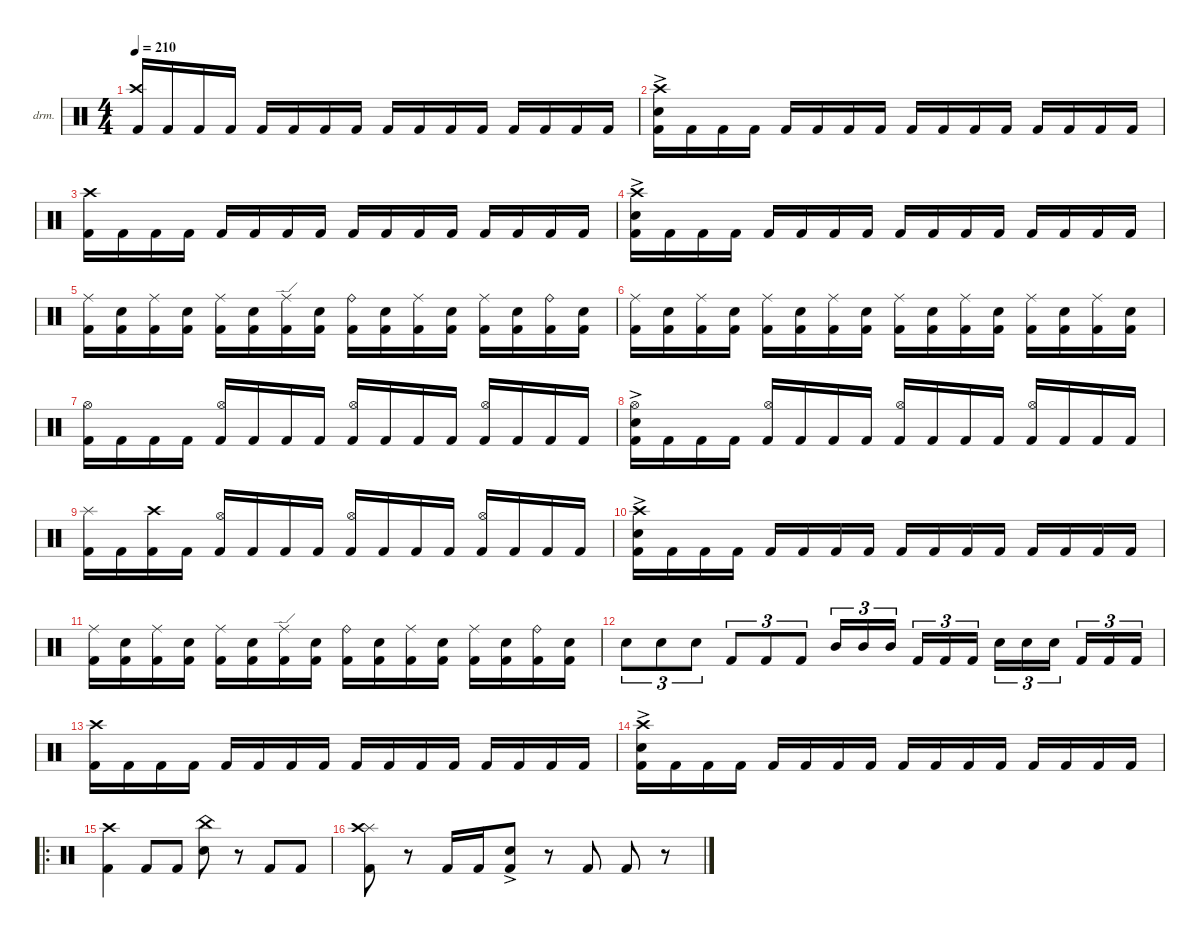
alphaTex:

\defaultSystemsLayout 4
\hideDynamics
\bracketExtendMode nobrackets
\firstSystemTrackNameOrientation horizontal
\otherSystemsTrackNameOrientation horizontal
\track ("Drumkit" "drm.") {instrument percussion}
\staff {score}
\articulation defaults
\ts (4 4)
\tempo 210
\clef neutral
\ks c
("Kick (hit) 2" "Crash high (hit)").16{dy f beam Up} "Kick (hit) 2".16{beam Up} "Kick (hit) 2".16{beam Up} "Kick (hit) 2".16{beam Up} "Kick (hit) 2".16{beam Up} "Kick (hit) 2".16{beam Up} "Kick (hit) 2".16{beam Up} "Kick (hit) 2".16{beam Up} "Kick (hit) 2".16{beam Up} "Kick (hit) 2".16{beam Up} "Kick (hit) 2".16{beam Up} "Kick (hit) 2".16{beam Up} "Kick (hit) 2".16{beam Up} "Kick (hit) 2".16{beam Up} "Kick (hit) 2".16{beam Up} "Kick (hit) 2".16{beam Up} |
("Kick (hit) 2" "Crash high (hit)" "Snare (hit) 2"{ac}).16{beam Down} "Kick (hit) 2".16{beam Down} "Kick (hit) 2".16{beam Down} "Kick (hit) 2".16{beam Down} "Kick (hit) 2".16{beam Up} "Kick (hit) 2".16{beam Up} "Kick (hit) 2".16{beam Up} "Kick (hit) 2".16{beam Up} "Kick (hit) 2".16{beam Up} "Kick (hit) 2".16{beam Up} "Kick (hit) 2".16{beam Up} "Kick (hit) 2".16{beam Up} "Kick (hit) 2".16{beam Up} "Kick (hit) 2".16{beam Up} "Kick (hit) 2".16{beam Up} "Kick (hit) 2".16{beam Up} |
("Kick (hit) 2" "Crash high (hit)").16{beam Down} "Kick (hit) 2".16{beam Down} "Kick (hit) 2".16{beam Down} "Kick (hit) 2".16{beam Down} "Kick (hit) 2".16{beam Up} "Kick (hit) 2".16{beam Up} "Kick (hit) 2".16{beam Up} "Kick (hit) 2".16{beam Up} "Kick (hit) 2".16{beam Up} "Kick (hit) 2".16{beam Up} "Kick (hit) 2".16{beam Up} "Kick (hit) 2".16{beam Up} "Kick (hit) 2".16{beam Up} "Kick (hit) 2".16{beam Up} "Kick (hit) 2".16{beam Up} "Kick (hit) 2".16{beam Up} |
("Kick (hit) 2" "Crash high (hit)" "Snare (hit) 2"{ac}).16{beam Down} "Kick (hit) 2".16{beam Down} "Kick (hit) 2".16{beam Down} "Kick (hit) 2".16{beam Down} "Kick (hit) 2".16{beam Up} "Kick (hit) 2".16{beam Up} "Kick (hit) 2".16{beam Up} "Kick (hit) 2".16{beam Up} "Kick (hit) 2".16{beam Up} "Kick (hit) 2".16{beam Up} "Kick (hit) 2".16{beam Up} "Kick (hit) 2".16{beam Up} "Kick (hit) 2".16{beam Up} "Kick (hit) 2".16{beam Up} "Kick (hit) 2".16{beam Up} "Kick (hit) 2".16{beam Up} |
("Kick (hit) 2" "Ride (middle)").16{beam Down} ("Kick (hit) 2" "Snare (hit) 2").16{beam Down} ("Kick (hit) 2" "Ride (middle)").16{beam Down} ("Kick (hit) 2" "Snare (hit) 2").16{beam Down} ("Kick (hit) 2" "Ride (middle)").16{beam Down} ("Kick (hit) 2" "Snare (hit) 2").16{beam Down} ("Kick (hit) 2" "Ride (edge)").16{beam Down} ("Kick (hit) 2" "Snare (hit) 2").16{beam Down} ("Kick (hit) 2" "Ride (bell)").16{beam Down} ("Kick (hit) 2" "Snare (hit) 2").16{beam Down} ("Kick (hit) 2" "Ride (middle)").16{beam Down} ("Kick (hit) 2" "Snare (hit) 2").16{beam Down} ("Kick (hit) 2" "Ride (middle)").16{beam Down} ("Kick (hit) 2" "Snare (hit) 2").16{beam Down} ("Kick (hit) 2" "Ride (bell)").16{beam Down} ("Kick (hit) 2" "Snare (hit) 2").16{beam Down} |
("Kick (hit) 2" "Ride (middle)").16{beam Down} ("Kick (hit) 2" "Snare (hit) 2").16{beam Down} ("Kick (hit) 2" "Ride (middle)").16{beam Down} ("Kick (hit) 2" "Snare (hit) 2").16{beam Down} ("Kick (hit) 2" "Ride (middle)").16{beam Down} ("Kick (hit) 2" "Snare (hit) 2").16{beam Down} ("Kick (hit) 2" "Ride (middle)").16{beam Down} ("Kick (hit) 2" "Snare (hit) 2").16{beam Down} ("Kick (hit) 2" "Ride (middle)").16{beam Down} ("Kick (hit) 2" "Snare (hit) 2").16{beam Down} ("Kick (hit) 2" "Ride (middle)").16{beam Down} ("Kick (hit) 2" "Snare (hit) 2").16{beam Down} ("Kick (hit) 2" "Ride (middle)").16{beam Down} ("Kick (hit) 2" "Snare (hit) 2").16{beam Down} ("Kick (hit) 2" "Ride (middle)").16{beam Down} ("Kick (hit) 2" "Snare (hit) 2").16{beam Down} |
("Kick (hit) 2" "Hi-Hat (open)").16{beam Down} "Kick (hit) 2".16{beam Down} "Kick (hit) 2".16{beam Down} "Kick (hit) 2".16{beam Down} ("Kick (hit) 2" "Hi-Hat (open)").16{beam Up} "Kick (hit) 2".16{beam Up} "Kick (hit) 2".16{beam Up} "Kick (hit) 2".16{beam Up} ("Kick (hit) 2" "Hi-Hat (open)").16{beam Up} "Kick (hit) 2".16{beam Up} "Kick (hit) 2".16{beam Up} "Kick (hit) 2".16{beam Up} ("Kick (hit) 2" "Hi-Hat (open)").16{beam Up} "Kick (hit) 2".16{beam Up} "Kick (hit) 2".16{beam Up} "Kick (hit) 2".16{beam Up} |
("Kick (hit) 2" "Snare (hit) 2"{ac} "Hi-Hat (open)").16{beam Down} "Kick (hit) 2".16{beam Down} "Kick (hit) 2".16{beam Down} "Kick (hit) 2".16{beam Down} ("Kick (hit) 2" "Hi-Hat (open)").16{beam Up} "Kick (hit) 2".16{beam Up} "Kick (hit) 2".16{beam Up} "Kick (hit) 2".16{beam Up} ("Kick (hit) 2" "Hi-Hat (open)").16{beam Up} "Kick (hit) 2".16{beam Up} "Kick (hit) 2".16{beam Up} "Kick (hit) 2".16{beam Up} ("Kick (hit) 2" "Hi-Hat (open)").16{beam Up} "Kick (hit) 2".16{beam Up} "Kick (hit) 2".16{beam Up} "Kick (hit) 2".16{beam Up} |
("Kick (hit) 2" "Splash (hit)").16{beam Down} "Kick (hit) 2".16{beam Down} ("Kick (hit) 2" "Crash high (hit)").16{beam Down} "Kick (hit) 2".16{beam Down} ("Kick (hit) 2" "Hi-Hat (open)").16{beam Up} "Kick (hit) 2".16{beam Up} "Kick (hit) 2".16{beam Up} "Kick (hit) 2".16{beam Up} ("Kick (hit) 2" "Hi-Hat (open)").16{beam Up} "Kick (hit) 2".16{beam Up} "Kick (hit) 2".16{beam Up} "Kick (hit) 2".16{beam Up} ("Kick (hit) 2" "Hi-Hat (open)").16{beam Up} "Kick (hit) 2".16{beam Up} "Kick (hit) 2".16{beam Up} "Kick (hit) 2".16{beam Up} |
("Kick (hit) 2" "Crash high (hit)" "Snare (hit) 2"{ac}).16{beam Down} "Kick (hit) 2".16{beam Down} "Kick (hit) 2".16{beam Down} "Kick (hit) 2".16{beam Down} "Kick (hit) 2".16{beam Up} "Kick (hit) 2".16{beam Up} "Kick (hit) 2".16{beam Up} "Kick (hit) 2".16{beam Up} "Kick (hit) 2".16{beam Up} "Kick (hit) 2".16{beam Up} "Kick (hit) 2".16{beam Up} "Kick (hit) 2".16{beam Up} "Kick (hit) 2".16{beam Up} "Kick (hit) 2".16{beam Up} "Kick (hit) 2".16{beam Up} "Kick (hit) 2".16{beam Up} |
("Kick (hit) 2" "Ride (middle)").16{beam Down} ("Kick (hit) 2" "Snare (hit) 2").16{beam Down} ("Kick (hit) 2" "Ride (middle)").16{beam Down} ("Kick (hit) 2" "Snare (hit) 2").16{beam Down} ("Kick (hit) 2" "Ride (middle)").16{beam Down} ("Kick (hit) 2" "Snare (hit) 2").16{beam Down} ("Kick (hit) 2" "Ride (edge)").16{beam Down} ("Kick (hit) 2" "Snare (hit) 2").16{beam Down} ("Kick (hit) 2" "Ride (bell)").16{beam Down} ("Kick (hit) 2" "Snare (hit) 2").16{beam Down} ("Kick (hit) 2" "Ride (middle)").16{beam Down} ("Kick (hit) 2" "Snare (hit) 2").16{beam Down} ("Kick (hit) 2" "Ride (middle)").16{beam Down} ("Kick (hit) 2" "Snare (hit) 2").16{beam Down} ("Kick (hit) 2" "Ride (bell)").16{beam Down} ("Kick (hit) 2" "Snare (hit) 2").16{beam Down} |
"Snare (hit) 2".8{tu (3 2) beam Down} "Snare (hit) 2".8{tu (3 2) beam Down} "Snare (hit) 2".8{tu (3 2) beam Down} "Kick (hit) 2".8{tu (3 2) beam Up} "Kick (hit) 2".8{tu (3 2) beam Up} "Kick (hit) 2".8{tu (3 2) beam Up} "Mid Tom (hit)".16{tu (3 2) beam Up} "Mid Tom (hit)".16{tu (3 2) beam Up} "Mid Tom (hit)".16{tu (3 2) beam Up} "Kick (hit) 2".16{tu (3 2) beam Up} "Kick (hit) 2".16{tu (3 2) beam Up} "Kick (hit) 2".16{tu (3 2) beam Up} "Snare (hit) 2".16{tu (3 2) beam Down} "Snare (hit) 2".16{tu (3 2) beam Down} "Snare (hit) 2".16{tu (3 2) beam Down} "Kick (hit) 2".16{tu (3 2) beam Up} "Kick (hit) 2".16{tu (3 2) beam Up} "Kick (hit) 2".16{tu (3 2) beam Up} |
("Kick (hit) 2" "Crash high (hit)").16{beam Down} "Kick (hit) 2".16{beam Down} "Kick (hit) 2".16{beam Down} "Kick (hit) 2".16{beam Down} "Kick (hit) 2".16{beam Up} "Kick (hit) 2".16{beam Up} "Kick (hit) 2".16{beam Up} "Kick (hit) 2".16{beam Up} "Kick (hit) 2".16{beam Up} "Kick (hit) 2".16{beam Up} "Kick (hit) 2".16{beam Up} "Kick (hit) 2".16{beam Up} "Kick (hit) 2".16{beam Up} "Kick (hit) 2".16{beam Up} "Kick (hit) 2".16{beam Up} "Kick (hit) 2".16{beam Up} |
("Kick (hit) 2" "Crash high (hit)" "Snare (hit) 2"{ac}).16{beam Down} "Kick (hit) 2".16{beam Down} "Kick (hit) 2".16{beam Down} "Kick (hit) 2".16{beam Down} "Kick (hit) 2".16{beam Up} "Kick (hit) 2".16{beam Up} "Kick (hit) 2".16{beam Up} "Kick (hit) 2".16{beam Up} "Kick (hit) 2".16{beam Up} "Kick (hit) 2".16{beam Up} "Kick (hit) 2".16{beam Up} "Kick (hit) 2".16{beam Up} "Kick (hit) 2".16{beam Up} "Kick (hit) 2".16{beam Up} "Kick (hit) 2".16{beam Up} "Kick (hit) 2".16{beam Up} |
\ro
("Crash high (hit)" "Kick (hit) 2").4{beam Down} "Kick (hit) 2".8{beam Up} "Kick (hit) 2".8{beam Up} ("Snare (hit) 2" "China (hit)").8{beam Down} r.8{beam Down} "Kick (hit) 2".8{beam Up} "Kick (hit) 2".8{beam Up} |
("Kick (hit) 2" "Splash (hit)" "Crash high (hit)").8{beam Down} r.8{beam Down} "Kick (hit) 2".16{beam Up} "Kick (hit) 2".16{beam Up} ("Kick (hit) 2" "Snare (hit) 2"{ac}).8{beam Up} r.8{beam Up} "Kick (hit) 2".8{beam Up} "Kick (hit) 2".8{beam Up} r.8{beam Up}
